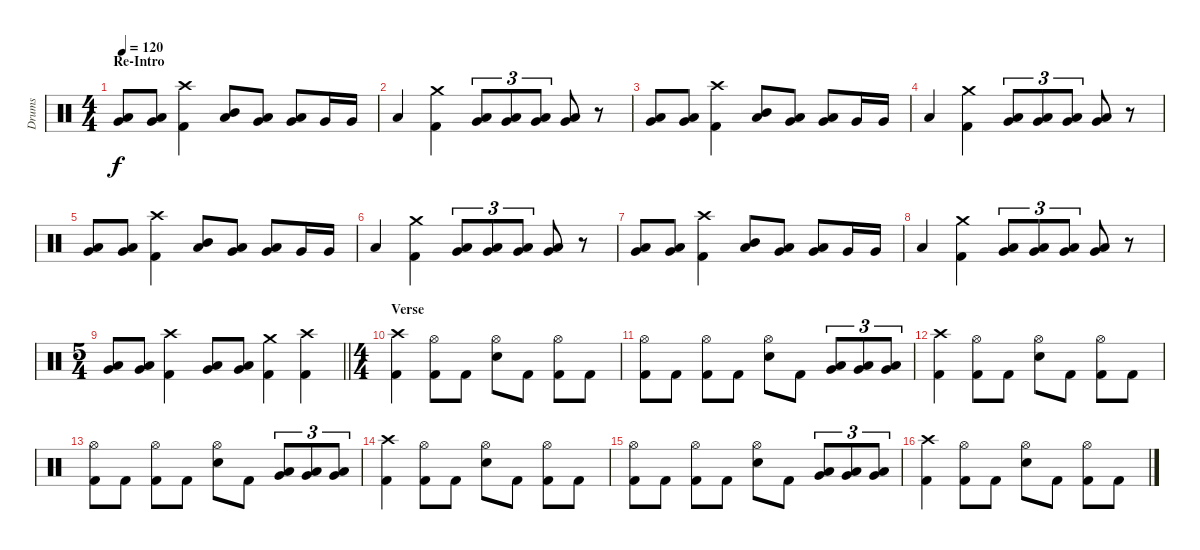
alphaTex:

\track ("Drums" "Drums") {instrument percussion}
\staff {score}
\articulation defaults
\ts (4 4)
\section ("" "Re-Intro")
\tempo 120
\clef neutral
\ks c
("Low Tom (hit)" "Very Low Tom (hit)").8{dy f} ("Low Tom (hit)" "Very Low Tom (hit)").8 ("Crash high (hit)" "Kick (hit) 2").4 ("Mid Tom (hit)" "Low Tom (hit)").8 ("Low Tom (hit)" "Very Low Tom (hit)").8 ("Low Tom (hit)" "Very Low Tom (hit)").8 "Very Low Tom (hit)".16 "Very Low Tom (hit)".16 |
"Low Tom (hit)".4 ("Crash medium (hit)" "Kick (hit) 2").4 ("Low Tom (hit)" "Very Low Tom (hit)").8{tu (3 2)} ("Low Tom (hit)" "Very Low Tom (hit)").8{tu (3 2)} ("Low Tom (hit)" "Very Low Tom (hit)").8{tu (3 2)} ("Low Tom (hit)" "Very Low Tom (hit)").8 r.8 |
("Low Tom (hit)" "Very Low Tom (hit)").8 ("Low Tom (hit)" "Very Low Tom (hit)").8 ("Crash high (hit)" "Kick (hit) 2").4 ("Mid Tom (hit)" "Low Tom (hit)").8 ("Low Tom (hit)" "Very Low Tom (hit)").8 ("Low Tom (hit)" "Very Low Tom (hit)").8 "Very Low Tom (hit)".16 "Very Low Tom (hit)".16 |
"Low Tom (hit)".4 ("Crash medium (hit)" "Kick (hit) 2").4 ("Low Tom (hit)" "Very Low Tom (hit)").8{tu (3 2)} ("Low Tom (hit)" "Very Low Tom (hit)").8{tu (3 2)} ("Low Tom (hit)" "Very Low Tom (hit)").8{tu (3 2)} ("Low Tom (hit)" "Very Low Tom (hit)").8 r.8 |
("Low Tom (hit)" "Very Low Tom (hit)").8 ("Low Tom (hit)" "Very Low Tom (hit)").8 ("Crash high (hit)" "Kick (hit) 2").4 ("Mid Tom (hit)" "Low Tom (hit)").8 ("Low Tom (hit)" "Very Low Tom (hit)").8 ("Low Tom (hit)" "Very Low Tom (hit)").8 "Very Low Tom (hit)".16 "Very Low Tom (hit)".16 |
"Low Tom (hit)".4 ("Crash medium (hit)" "Kick (hit) 2").4 ("Low Tom (hit)" "Very Low Tom (hit)").8{tu (3 2)} ("Low Tom (hit)" "Very Low Tom (hit)").8{tu (3 2)} ("Low Tom (hit)" "Very Low Tom (hit)").8{tu (3 2)} ("Low Tom (hit)" "Very Low Tom (hit)").8 r.8 |
("Low Tom (hit)" "Very Low Tom (hit)").8 ("Low Tom (hit)" "Very Low Tom (hit)").8 ("Crash high (hit)" "Kick (hit) 2").4 ("Mid Tom (hit)" "Low Tom (hit)").8 ("Low Tom (hit)" "Very Low Tom (hit)").8 ("Low Tom (hit)" "Very Low Tom (hit)").8 "Very Low Tom (hit)".16 "Very Low Tom (hit)".16 |
"Low Tom (hit)".4 ("Crash medium (hit)" "Kick (hit) 2").4 ("Low Tom (hit)" "Very Low Tom (hit)").8{tu (3 2)} ("Low Tom (hit)" "Very Low Tom (hit)").8{tu (3 2)} ("Low Tom (hit)" "Very Low Tom (hit)").8{tu (3 2)} ("Low Tom (hit)" "Very Low Tom (hit)").8 r.8 |
\ts (5 4)
\barLineRight lightlight
("Low Tom (hit)" "Very Low Tom (hit)").8 ("Low Tom (hit)" "Very Low Tom (hit)").8 ("Crash high (hit)" "Kick (hit) 2").4 ("Low Tom (hit)" "Very Low Tom (hit)").8 ("Low Tom (hit)" "Very Low Tom (hit)").8 ("Crash medium (hit)" "Kick (hit) 2").4 ("Crash high (hit)" "Kick (hit) 2").4 |
\ts (4 4)
\section ("" "Verse")
("Crash high (hit)" "Kick (hit) 2").4 ("Hi-Hat (open)" "Kick (hit) 2").8 "Kick (hit) 2".8 ("Hi-Hat (open)" "Electric Snare (hit)").8 "Kick (hit) 2".8 ("Hi-Hat (open)" "Kick (hit) 2").8 "Kick (hit) 2".8 |
("Hi-Hat (open)" "Kick (hit) 2").8 "Kick (hit) 2".8 ("Hi-Hat (open)" "Kick (hit) 2").8 "Kick (hit) 2".8 ("Hi-Hat (open)" "Electric Snare (hit)").8 "Kick (hit) 2".8 ("Low Tom (hit)" "Very Low Tom (hit)").8{tu (3 2)} ("Low Tom (hit)" "Very Low Tom (hit)").8{tu (3 2)} ("Low Tom (hit)" "Very Low Tom (hit)").8{tu (3 2)} |
("Crash high (hit)" "Kick (hit) 2").4 ("Hi-Hat (open)" "Kick (hit) 2").8 "Kick (hit) 2".8 ("Hi-Hat (open)" "Electric Snare (hit)").8 "Kick (hit) 2".8 ("Hi-Hat (open)" "Kick (hit) 2").8 "Kick (hit) 2".8 |
("Hi-Hat (open)" "Kick (hit) 2").8 "Kick (hit) 2".8 ("Hi-Hat (open)" "Kick (hit) 2").8 "Kick (hit) 2".8 ("Hi-Hat (open)" "Electric Snare (hit)").8 "Kick (hit) 2".8 ("Low Tom (hit)" "Very Low Tom (hit)").8{tu (3 2)} ("Low Tom (hit)" "Very Low Tom (hit)").8{tu (3 2)} ("Low Tom (hit)" "Very Low Tom (hit)").8{tu (3 2)} |
("Crash high (hit)" "Kick (hit) 2").4 ("Hi-Hat (open)" "Kick (hit) 2").8 "Kick (hit) 2".8 ("Hi-Hat (open)" "Electric Snare (hit)").8 "Kick (hit) 2".8 ("Hi-Hat (open)" "Kick (hit) 2").8 "Kick (hit) 2".8 |
("Hi-Hat (open)" "Kick (hit) 2").8 "Kick (hit) 2".8 ("Hi-Hat (open)" "Kick (hit) 2").8 "Kick (hit) 2".8 ("Hi-Hat (open)" "Electric Snare (hit)").8 "Kick (hit) 2".8 ("Low Tom (hit)" "Very Low Tom (hit)").8{tu (3 2)} ("Low Tom (hit)" "Very Low Tom (hit)").8{tu (3 2)} ("Low Tom (hit)" "Very Low Tom (hit)").8{tu (3 2)} |
("Crash high (hit)" "Kick (hit) 2").4 ("Hi-Hat (open)" "Kick (hit) 2").8 "Kick (hit) 2".8 ("Hi-Hat (open)" "Electric Snare (hit)").8 "Kick (hit) 2".8 ("Hi-Hat (open)" "Kick (hit) 2").8 "Kick (hit) 2".8
